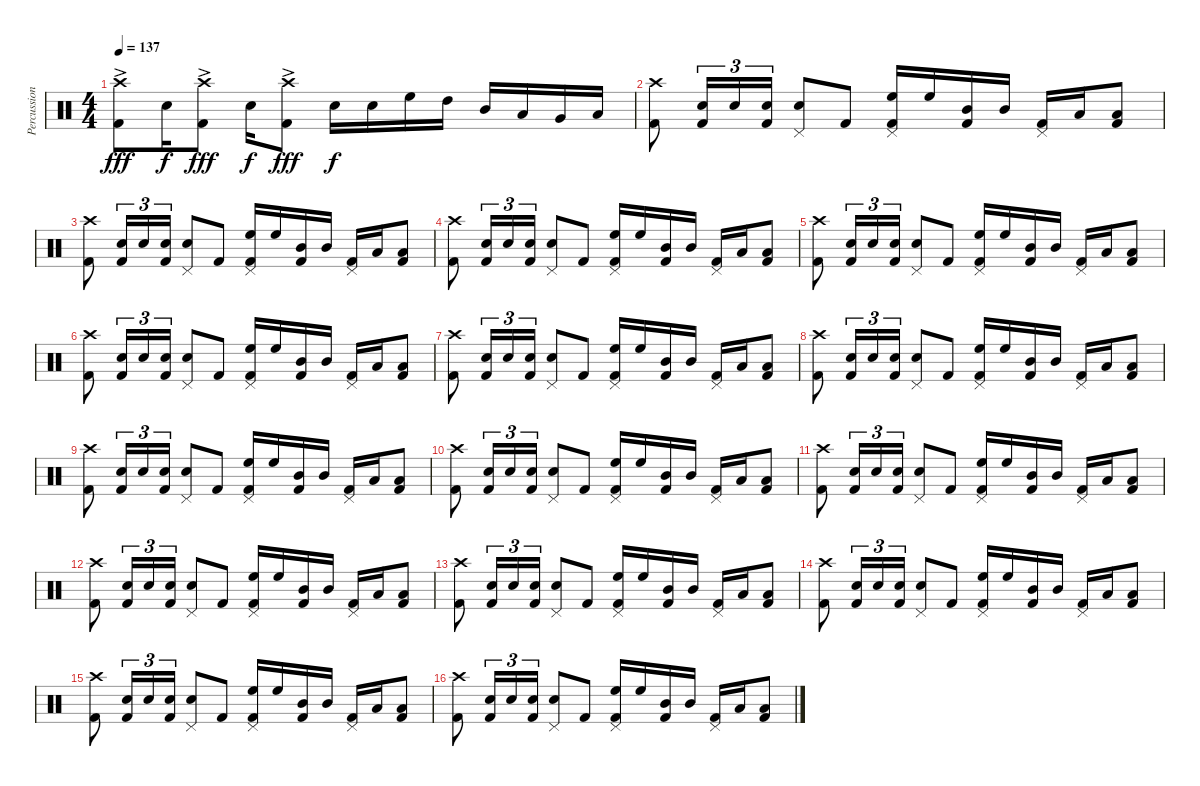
\track ("Percussion" "Percussion") {instrument percussion}
\staff {score}
\articulation defaults
\ts (4 4)
\tempo 137
\clef neutral
\ks c
("Kick (hit) 2" "Crash high (hit)"{ac}).8{dy fff} "Snare (hit) 2".16{dy f} ("Kick (hit) 2" "Crash high (hit)"{ac}).8{dy fff} "Snare (hit) 2".16{dy f} ("Kick (hit) 2" "Crash high (hit)"{ac}).8{dy fff} "Snare (hit) 2".16{dy f} "Snare (hit) 2".16 "High Floor Tom (hit)".16 "High Tom (hit)".16 "Mid Tom (hit)".16 "Low Tom (hit)".16 "Very Low Tom (hit)".16 "Low Floor Tom (hit)".16 |
("Kick (hit) 2" "Crash high (hit)").8 ("Kick (hit) 2" "Snare (hit) 2").16{tu (3 2)} "Snare (hit) 2".16{tu (3 2)} ("Kick (hit) 2" "Snare (hit) 2").16{tu (3 2)} ("Snare (hit) 2" "Pedal Hi-Hat (hit)").8 "Kick (hit) 2".8 ("Kick (hit) 2" "High Floor Tom (hit)" "Pedal Hi-Hat (hit)").16 "High Floor Tom (hit)".16 ("Kick (hit) 2" "Mid Tom (hit)").16 "Mid Tom (hit)".16 ("Kick (hit) 2" "Pedal Hi-Hat (hit)").16 "Low Tom (hit)".16 ("Kick (hit) 2" "Low Tom (hit)").8 |
("Kick (hit) 2" "Crash high (hit)").8 ("Kick (hit) 2" "Snare (hit) 2").16{tu (3 2)} "Snare (hit) 2".16{tu (3 2)} ("Kick (hit) 2" "Snare (hit) 2").16{tu (3 2)} ("Snare (hit) 2" "Pedal Hi-Hat (hit)").8 "Kick (hit) 2".8 ("Kick (hit) 2" "High Floor Tom (hit)" "Pedal Hi-Hat (hit)").16 "High Floor Tom (hit)".16 ("Kick (hit) 2" "Mid Tom (hit)").16 "Mid Tom (hit)".16 ("Kick (hit) 2" "Pedal Hi-Hat (hit)").16 "Low Tom (hit)".16 ("Kick (hit) 2" "Low Tom (hit)").8 |
("Kick (hit) 2" "Crash high (hit)").8 ("Kick (hit) 2" "Snare (hit) 2").16{tu (3 2)} "Snare (hit) 2".16{tu (3 2)} ("Kick (hit) 2" "Snare (hit) 2").16{tu (3 2)} ("Snare (hit) 2" "Pedal Hi-Hat (hit)").8 "Kick (hit) 2".8 ("Kick (hit) 2" "High Floor Tom (hit)" "Pedal Hi-Hat (hit)").16 "High Floor Tom (hit)".16 ("Kick (hit) 2" "Mid Tom (hit)").16 "Mid Tom (hit)".16 ("Kick (hit) 2" "Pedal Hi-Hat (hit)").16 "Low Tom (hit)".16 ("Kick (hit) 2" "Low Tom (hit)").8 |
("Kick (hit) 2" "Crash high (hit)").8 ("Kick (hit) 2" "Snare (hit) 2").16{tu (3 2)} "Snare (hit) 2".16{tu (3 2)} ("Kick (hit) 2" "Snare (hit) 2").16{tu (3 2)} ("Snare (hit) 2" "Pedal Hi-Hat (hit)").8 "Kick (hit) 2".8 ("Kick (hit) 2" "High Floor Tom (hit)" "Pedal Hi-Hat (hit)").16 "High Floor Tom (hit)".16 ("Kick (hit) 2" "Mid Tom (hit)").16 "Mid Tom (hit)".16 ("Kick (hit) 2" "Pedal Hi-Hat (hit)").16 "Low Tom (hit)".16 ("Kick (hit) 2" "Low Tom (hit)").8 |
("Kick (hit) 2" "Crash high (hit)").8 ("Kick (hit) 2" "Snare (hit) 2").16{tu (3 2)} "Snare (hit) 2".16{tu (3 2)} ("Kick (hit) 2" "Snare (hit) 2").16{tu (3 2)} ("Snare (hit) 2" "Pedal Hi-Hat (hit)").8 "Kick (hit) 2".8 ("Kick (hit) 2" "High Floor Tom (hit)" "Pedal Hi-Hat (hit)").16 "High Floor Tom (hit)".16 ("Kick (hit) 2" "Mid Tom (hit)").16 "Mid Tom (hit)".16 ("Kick (hit) 2" "Pedal Hi-Hat (hit)").16 "Low Tom (hit)".16 ("Kick (hit) 2" "Low Tom (hit)").8 |
("Kick (hit) 2" "Crash high (hit)").8 ("Kick (hit) 2" "Snare (hit) 2").16{tu (3 2)} "Snare (hit) 2".16{tu (3 2)} ("Kick (hit) 2" "Snare (hit) 2").16{tu (3 2)} ("Snare (hit) 2" "Pedal Hi-Hat (hit)").8 "Kick (hit) 2".8 ("Kick (hit) 2" "High Floor Tom (hit)" "Pedal Hi-Hat (hit)").16 "High Floor Tom (hit)".16 ("Kick (hit) 2" "Mid Tom (hit)").16 "Mid Tom (hit)".16 ("Kick (hit) 2" "Pedal Hi-Hat (hit)").16 "Low Tom (hit)".16 ("Kick (hit) 2" "Low Tom (hit)").8 |
("Kick (hit) 2" "Crash high (hit)").8 ("Kick (hit) 2" "Snare (hit) 2").16{tu (3 2)} "Snare (hit) 2".16{tu (3 2)} ("Kick (hit) 2" "Snare (hit) 2").16{tu (3 2)} ("Snare (hit) 2" "Pedal Hi-Hat (hit)").8 "Kick (hit) 2".8 ("Kick (hit) 2" "High Floor Tom (hit)" "Pedal Hi-Hat (hit)").16 "High Floor Tom (hit)".16 ("Kick (hit) 2" "Mid Tom (hit)").16 "Mid Tom (hit)".16 ("Kick (hit) 2" "Pedal Hi-Hat (hit)").16 "Low Tom (hit)".16 ("Kick (hit) 2" "Low Tom (hit)").8 |
("Kick (hit) 2" "Crash high (hit)").8 ("Kick (hit) 2" "Snare (hit) 2").16{tu (3 2)} "Snare (hit) 2".16{tu (3 2)} ("Kick (hit) 2" "Snare (hit) 2").16{tu (3 2)} ("Snare (hit) 2" "Pedal Hi-Hat (hit)").8 "Kick (hit) 2".8 ("Kick (hit) 2" "High Floor Tom (hit)" "Pedal Hi-Hat (hit)").16 "High Floor Tom (hit)".16 ("Kick (hit) 2" "Mid Tom (hit)").16 "Mid Tom (hit)".16 ("Kick (hit) 2" "Pedal Hi-Hat (hit)").16 "Low Tom (hit)".16 ("Kick (hit) 2" "Low Tom (hit)").8 |
("Kick (hit) 2" "Crash high (hit)").8 ("Kick (hit) 2" "Snare (hit) 2").16{tu (3 2)} "Snare (hit) 2".16{tu (3 2)} ("Kick (hit) 2" "Snare (hit) 2").16{tu (3 2)} ("Snare (hit) 2" "Pedal Hi-Hat (hit)").8 "Kick (hit) 2".8 ("Kick (hit) 2" "High Floor Tom (hit)" "Pedal Hi-Hat (hit)").16 "High Floor Tom (hit)".16 ("Kick (hit) 2" "Mid Tom (hit)").16 "Mid Tom (hit)".16 ("Kick (hit) 2" "Pedal Hi-Hat (hit)").16 "Low Tom (hit)".16 ("Kick (hit) 2" "Low Tom (hit)").8 |
("Kick (hit) 2" "Crash high (hit)").8 ("Kick (hit) 2" "Snare (hit) 2").16{tu (3 2)} "Snare (hit) 2".16{tu (3 2)} ("Kick (hit) 2" "Snare (hit) 2").16{tu (3 2)} ("Snare (hit) 2" "Pedal Hi-Hat (hit)").8 "Kick (hit) 2".8 ("Kick (hit) 2" "High Floor Tom (hit)" "Pedal Hi-Hat (hit)").16 "High Floor Tom (hit)".16 ("Kick (hit) 2" "Mid Tom (hit)").16 "Mid Tom (hit)".16 ("Kick (hit) 2" "Pedal Hi-Hat (hit)").16 "Low Tom (hit)".16 ("Kick (hit) 2" "Low Tom (hit)").8 |
("Kick (hit) 2" "Crash high (hit)").8 ("Kick (hit) 2" "Snare (hit) 2").16{tu (3 2)} "Snare (hit) 2".16{tu (3 2)} ("Kick (hit) 2" "Snare (hit) 2").16{tu (3 2)} ("Snare (hit) 2" "Pedal Hi-Hat (hit)").8 "Kick (hit) 2".8 ("Kick (hit) 2" "High Floor Tom (hit)" "Pedal Hi-Hat (hit)").16 "High Floor Tom (hit)".16 ("Kick (hit) 2" "Mid Tom (hit)").16 "Mid Tom (hit)".16 ("Kick (hit) 2" "Pedal Hi-Hat (hit)").16 "Low Tom (hit)".16 ("Kick (hit) 2" "Low Tom (hit)").8 |
("Kick (hit) 2" "Crash high (hit)").8 ("Kick (hit) 2" "Snare (hit) 2").16{tu (3 2)} "Snare (hit) 2".16{tu (3 2)} ("Kick (hit) 2" "Snare (hit) 2").16{tu (3 2)} ("Snare (hit) 2" "Pedal Hi-Hat (hit)").8 "Kick (hit) 2".8 ("Kick (hit) 2" "High Floor Tom (hit)" "Pedal Hi-Hat (hit)").16 "High Floor Tom (hit)".16 ("Kick (hit) 2" "Mid Tom (hit)").16 "Mid Tom (hit)".16 ("Kick (hit) 2" "Pedal Hi-Hat (hit)").16 "Low Tom (hit)".16 ("Kick (hit) 2" "Low Tom (hit)").8 |
("Kick (hit) 2" "Crash high (hit)").8 ("Kick (hit) 2" "Snare (hit) 2").16{tu (3 2)} "Snare (hit) 2".16{tu (3 2)} ("Kick (hit) 2" "Snare (hit) 2").16{tu (3 2)} ("Snare (hit) 2" "Pedal Hi-Hat (hit)").8 "Kick (hit) 2".8 ("Kick (hit) 2" "High Floor Tom (hit)" "Pedal Hi-Hat (hit)").16 "High Floor Tom (hit)".16 ("Kick (hit) 2" "Mid Tom (hit)").16 "Mid Tom (hit)".16 ("Kick (hit) 2" "Pedal Hi-Hat (hit)").16 "Low Tom (hit)".16 ("Kick (hit) 2" "Low Tom (hit)").8 |
("Kick (hit) 2" "Crash high (hit)").8 ("Kick (hit) 2" "Snare (hit) 2").16{tu (3 2)} "Snare (hit) 2".16{tu (3 2)} ("Kick (hit) 2" "Snare (hit) 2").16{tu (3 2)} ("Snare (hit) 2" "Pedal Hi-Hat (hit)").8 "Kick (hit) 2".8 ("Kick (hit) 2" "High Floor Tom (hit)" "Pedal Hi-Hat (hit)").16 "High Floor Tom (hit)".16 ("Kick (hit) 2" "Mid Tom (hit)").16 "Mid Tom (hit)".16 ("Kick (hit) 2" "Pedal Hi-Hat (hit)").16 "Low Tom (hit)".16 ("Kick (hit) 2" "Low Tom (hit)").8 |
("Kick (hit) 2" "Crash high (hit)").8 ("Kick (hit) 2" "Snare (hit) 2").16{tu (3 2)} "Snare (hit) 2".16{tu (3 2)} ("Kick (hit) 2" "Snare (hit) 2").16{tu (3 2)} ("Snare (hit) 2" "Pedal Hi-Hat (hit)").8 "Kick (hit) 2".8 ("Kick (hit) 2" "High Floor Tom (hit)" "Pedal Hi-Hat (hit)").16 "High Floor Tom (hit)".16 ("Kick (hit) 2" "Mid Tom (hit)").16 "Mid Tom (hit)".16 ("Kick (hit) 2" "Pedal Hi-Hat (hit)").16 "Low Tom (hit)".16 ("Kick (hit) 2" "Low Tom (hit)").8
